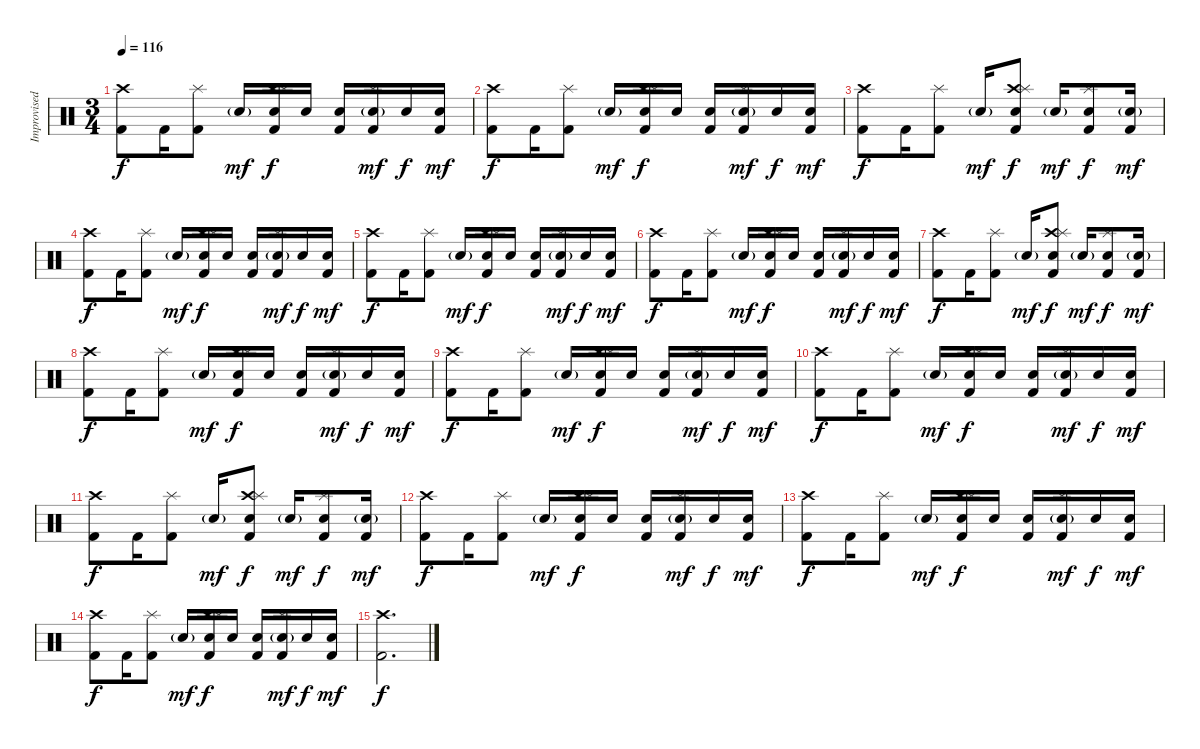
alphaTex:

\track ("Improvised Drums" "Improvised") {instrument percussion}
\staff {score}
\articulation defaults
\ts (3 4)
\tempo 116
\clef neutral
\ks c
("Kick (hit) 2" "Crash high (hit)").8{dy f} "Kick (hit) 2".16 ("Kick (hit) 2" "Splash (hit)").8 "Snare (hit) 2"{g}.16{dy mf} ("Kick (hit) 2" "Snare (hit) 2" "Crash high (hit)" "Splash (hit)").16{dy f} "Snare (hit) 2".16 ("Kick (hit) 2" "Snare (hit) 2").16 ("Kick (hit) 2" "Snare (hit) 2"{g} "Splash (hit)").16{dy mf} "Snare (hit) 2".16{dy f} ("Kick (hit) 2" "Snare (hit) 2").16{dy mf} |
("Kick (hit) 2" "Crash high (hit)").8{dy f} "Kick (hit) 2".16 ("Kick (hit) 2" "Splash (hit)").8 "Snare (hit) 2"{g}.16{dy mf} ("Kick (hit) 2" "Snare (hit) 2" "Crash high (hit)" "Splash (hit)").16{dy f} "Snare (hit) 2".16 ("Kick (hit) 2" "Snare (hit) 2").16 ("Kick (hit) 2" "Snare (hit) 2"{g} "Splash (hit)").16{dy mf} "Snare (hit) 2".16{dy f} ("Kick (hit) 2" "Snare (hit) 2").16{dy mf} |
("Kick (hit) 2" "Crash high (hit)").8{dy f} "Kick (hit) 2".16 ("Kick (hit) 2" "Splash (hit)").8 "Snare (hit) 2"{g}.16{dy mf} ("Kick (hit) 2" "Snare (hit) 2" "Crash high (hit)" "Splash (hit)").8{dy f} "Snare (hit) 2"{g}.16{dy mf} ("Kick (hit) 2" "Snare (hit) 2" "Splash (hit)").8{dy f} ("Kick (hit) 2" "Snare (hit) 2"{g}).16{dy mf} |
("Kick (hit) 2" "Crash high (hit)").8{dy f} "Kick (hit) 2".16 ("Kick (hit) 2" "Splash (hit)").8 "Snare (hit) 2"{g}.16{dy mf} ("Kick (hit) 2" "Snare (hit) 2" "Crash high (hit)" "Splash (hit)").16{dy f} "Snare (hit) 2".16 ("Kick (hit) 2" "Snare (hit) 2").16 ("Kick (hit) 2" "Snare (hit) 2"{g} "Splash (hit)").16{dy mf} "Snare (hit) 2".16{dy f} ("Kick (hit) 2" "Snare (hit) 2").16{dy mf} |
("Kick (hit) 2" "Crash high (hit)").8{dy f} "Kick (hit) 2".16 ("Kick (hit) 2" "Splash (hit)").8 "Snare (hit) 2"{g}.16{dy mf} ("Kick (hit) 2" "Snare (hit) 2" "Crash high (hit)" "Splash (hit)").16{dy f} "Snare (hit) 2".16 ("Kick (hit) 2" "Snare (hit) 2").16 ("Kick (hit) 2" "Snare (hit) 2"{g} "Splash (hit)").16{dy mf} "Snare (hit) 2".16{dy f} ("Kick (hit) 2" "Snare (hit) 2").16{dy mf} |
("Kick (hit) 2" "Crash high (hit)").8{dy f} "Kick (hit) 2".16 ("Kick (hit) 2" "Splash (hit)").8 "Snare (hit) 2"{g}.16{dy mf} ("Kick (hit) 2" "Snare (hit) 2" "Crash high (hit)" "Splash (hit)").16{dy f} "Snare (hit) 2".16 ("Kick (hit) 2" "Snare (hit) 2").16 ("Kick (hit) 2" "Snare (hit) 2"{g} "Splash (hit)").16{dy mf} "Snare (hit) 2".16{dy f} ("Kick (hit) 2" "Snare (hit) 2").16{dy mf} |
("Kick (hit) 2" "Crash high (hit)").8{dy f} "Kick (hit) 2".16 ("Kick (hit) 2" "Splash (hit)").8 "Snare (hit) 2"{g}.16{dy mf} ("Kick (hit) 2" "Snare (hit) 2" "Crash high (hit)" "Splash (hit)").8{dy f} "Snare (hit) 2"{g}.16{dy mf} ("Kick (hit) 2" "Snare (hit) 2" "Splash (hit)").8{dy f} ("Kick (hit) 2" "Snare (hit) 2"{g}).16{dy mf} |
("Kick (hit) 2" "Crash high (hit)").8{dy f} "Kick (hit) 2".16 ("Kick (hit) 2" "Splash (hit)").8 "Snare (hit) 2"{g}.16{dy mf} ("Kick (hit) 2" "Snare (hit) 2" "Crash high (hit)" "Splash (hit)").16{dy f} "Snare (hit) 2".16 ("Kick (hit) 2" "Snare (hit) 2").16 ("Kick (hit) 2" "Snare (hit) 2"{g} "Splash (hit)").16{dy mf} "Snare (hit) 2".16{dy f} ("Kick (hit) 2" "Snare (hit) 2").16{dy mf} |
("Kick (hit) 2" "Crash high (hit)").8{dy f} "Kick (hit) 2".16 ("Kick (hit) 2" "Splash (hit)").8 "Snare (hit) 2"{g}.16{dy mf} ("Kick (hit) 2" "Snare (hit) 2" "Crash high (hit)" "Splash (hit)").16{dy f} "Snare (hit) 2".16 ("Kick (hit) 2" "Snare (hit) 2").16 ("Kick (hit) 2" "Snare (hit) 2"{g} "Splash (hit)").16{dy mf} "Snare (hit) 2".16{dy f} ("Kick (hit) 2" "Snare (hit) 2").16{dy mf} |
("Kick (hit) 2" "Crash high (hit)").8{dy f} "Kick (hit) 2".16 ("Kick (hit) 2" "Splash (hit)").8 "Snare (hit) 2"{g}.16{dy mf} ("Kick (hit) 2" "Snare (hit) 2" "Crash high (hit)" "Splash (hit)").16{dy f} "Snare (hit) 2".16 ("Kick (hit) 2" "Snare (hit) 2").16 ("Kick (hit) 2" "Snare (hit) 2"{g} "Splash (hit)").16{dy mf} "Snare (hit) 2".16{dy f} ("Kick (hit) 2" "Snare (hit) 2").16{dy mf} |
("Kick (hit) 2" "Crash high (hit)").8{dy f} "Kick (hit) 2".16 ("Kick (hit) 2" "Splash (hit)").8 "Snare (hit) 2"{g}.16{dy mf} ("Kick (hit) 2" "Snare (hit) 2" "Crash high (hit)" "Splash (hit)").8{dy f} "Snare (hit) 2"{g}.16{dy mf} ("Kick (hit) 2" "Snare (hit) 2" "Splash (hit)").8{dy f} ("Kick (hit) 2" "Snare (hit) 2"{g}).16{dy mf} |
("Kick (hit) 2" "Crash high (hit)").8{dy f} "Kick (hit) 2".16 ("Kick (hit) 2" "Splash (hit)").8 "Snare (hit) 2"{g}.16{dy mf} ("Kick (hit) 2" "Snare (hit) 2" "Crash high (hit)" "Splash (hit)").16{dy f} "Snare (hit) 2".16 ("Kick (hit) 2" "Snare (hit) 2").16 ("Kick (hit) 2" "Snare (hit) 2"{g} "Splash (hit)").16{dy mf} "Snare (hit) 2".16{dy f} ("Kick (hit) 2" "Snare (hit) 2").16{dy mf} |
("Kick (hit) 2" "Crash high (hit)").8{dy f} "Kick (hit) 2".16 ("Kick (hit) 2" "Splash (hit)").8 "Snare (hit) 2"{g}.16{dy mf} ("Kick (hit) 2" "Snare (hit) 2" "Crash high (hit)" "Splash (hit)").16{dy f} "Snare (hit) 2".16 ("Kick (hit) 2" "Snare (hit) 2").16 ("Kick (hit) 2" "Snare (hit) 2"{g} "Splash (hit)").16{dy mf} "Snare (hit) 2".16{dy f} ("Kick (hit) 2" "Snare (hit) 2").16{dy mf} |
("Kick (hit) 2" "Crash high (hit)").8{dy f} "Kick (hit) 2".16 ("Kick (hit) 2" "Splash (hit)").8 "Snare (hit) 2"{g}.16{dy mf} ("Kick (hit) 2" "Snare (hit) 2" "Crash high (hit)" "Splash (hit)").16{dy f} "Snare (hit) 2".16 ("Kick (hit) 2" "Snare (hit) 2").16 ("Kick (hit) 2" "Snare (hit) 2"{g} "Splash (hit)").16{dy mf} "Snare (hit) 2".16{dy f} ("Kick (hit) 2" "Snare (hit) 2").16{dy mf} |
("Crash high (hit)" "Kick (hit) 2").2{d dy f}
